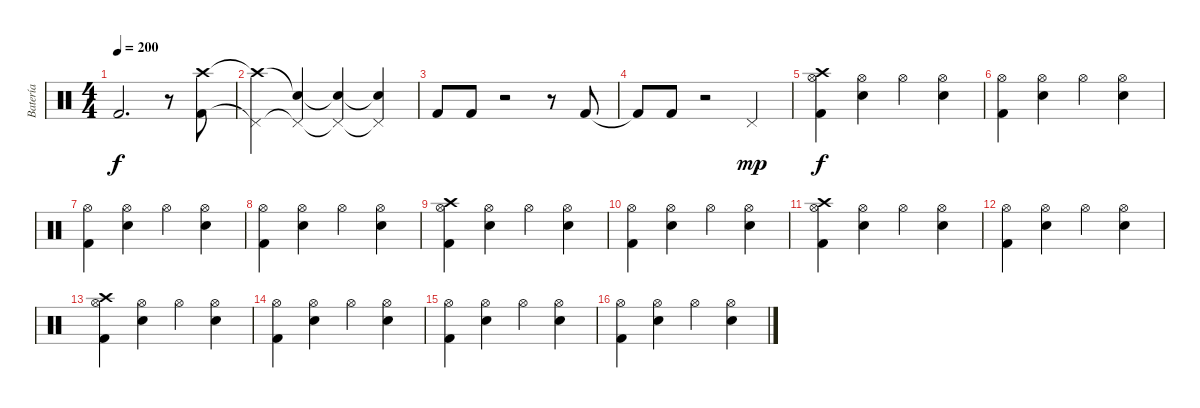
\track ("Batería" "Batería") {instrument percussion}
\staff {score}
\articulation defaults
\ts (4 4)
\tempo 200
\clef neutral
\ks c "Kick (hit) 2".2{d dy f}
r.8 ("Kick (hit) 2" "Crash high (hit)").8 |
("Pedal Hi-Hat (hit)"{t} "Crash high (hit)"{t}).4 ("Pedal Hi-Hat (hit)"{t} "Snare (hit)"{t}).4 ("Pedal Hi-Hat (hit)"{t} "Snare (hit)"{t}).4 ("Pedal Hi-Hat (hit)"{t} "Snare (hit)"{t}).4 |
"Kick (hit) 2".8 "Kick (hit) 2".8 r.2 r.8 "Kick (hit) 2".8 |
"Kick (hit) 2"{t}.8 "Kick (hit) 2".8 r.2 "Pedal Hi-Hat (hit)".4{dy mp} |
("Hi-Hat (open)" "Kick (hit) 2" "Crash high (hit)").4{dy f} ("Hi-Hat (open)" "Electric Snare (hit)").4 "Hi-Hat (open)".4 ("Hi-Hat (open)" "Electric Snare (hit)").4 |
("Hi-Hat (open)" "Kick (hit) 2").4 ("Hi-Hat (open)" "Electric Snare (hit)").4 "Hi-Hat (open)".4 ("Hi-Hat (open)" "Electric Snare (hit)").4 |
("Hi-Hat (open)" "Kick (hit) 2").4 ("Hi-Hat (open)" "Electric Snare (hit)").4 "Hi-Hat (open)".4 ("Hi-Hat (open)" "Electric Snare (hit)").4 |
("Hi-Hat (open)" "Kick (hit) 2").4 ("Hi-Hat (open)" "Electric Snare (hit)").4 "Hi-Hat (open)".4 ("Hi-Hat (open)" "Electric Snare (hit)").4 |
("Hi-Hat (open)" "Kick (hit) 2" "Crash high (hit)").4 ("Hi-Hat (open)" "Electric Snare (hit)").4 "Hi-Hat (open)".4 ("Hi-Hat (open)" "Electric Snare (hit)").4 |
("Hi-Hat (open)" "Kick (hit) 2").4 ("Hi-Hat (open)" "Electric Snare (hit)").4 "Hi-Hat (open)".4 ("Hi-Hat (open)" "Electric Snare (hit)").4 |
("Hi-Hat (open)" "Kick (hit) 2" "Crash high (hit)").4 ("Hi-Hat (open)" "Electric Snare (hit)").4 "Hi-Hat (open)".4 ("Hi-Hat (open)" "Electric Snare (hit)").4 |
("Hi-Hat (open)" "Kick (hit) 2").4 ("Hi-Hat (open)" "Electric Snare (hit)").4 "Hi-Hat (open)".4 ("Hi-Hat (open)" "Electric Snare (hit)").4 |
("Hi-Hat (open)" "Kick (hit) 2" "Crash high (hit)").4 ("Hi-Hat (open)" "Electric Snare (hit)").4 "Hi-Hat (open)".4 ("Hi-Hat (open)" "Electric Snare (hit)").4 |
("Hi-Hat (open)" "Kick (hit) 2").4 ("Hi-Hat (open)" "Electric Snare (hit)").4 "Hi-Hat (open)".4 ("Hi-Hat (open)" "Electric Snare (hit)").4 |
("Hi-Hat (open)" "Kick (hit) 2").4 ("Hi-Hat (open)" "Electric Snare (hit)").4 "Hi-Hat (open)".4 ("Hi-Hat (open)" "Electric Snare (hit)").4 |
("Hi-Hat (open)" "Kick (hit) 2").4 ("Hi-Hat (open)" "Electric Snare (hit)").4 "Hi-Hat (open)".4 ("Hi-Hat (open)" "Electric Snare (hit)").4
